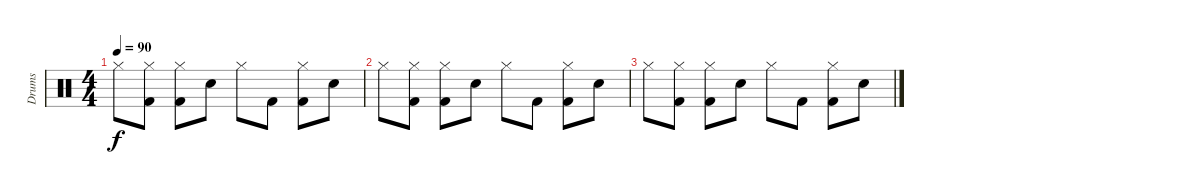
\track ("Drums" "Drums") {instrument percussion}
\staff {score}
\articulation defaults
\ts (4 4)
\tempo 90
\clef neutral
\ks c "Hi-Hat (closed)".8{dy f}
("Hi-Hat (closed)" "Kick (hit) 2").8 ("Hi-Hat (closed)" "Kick (hit) 2").8 "Snare (hit) 2".8 "Hi-Hat (closed)".8 "Kick (hit) 2".8 ("Hi-Hat (closed)" "Kick (hit) 2").8 "Snare (hit) 2".8 |
"Hi-Hat (closed)".8 ("Hi-Hat (closed)" "Kick (hit) 2").8 ("Hi-Hat (closed)" "Kick (hit) 2").8 "Snare (hit) 2".8 "Hi-Hat (closed)".8 "Kick (hit) 2".8 ("Hi-Hat (closed)" "Kick (hit) 2").8 "Snare (hit) 2".8 |
"Hi-Hat (closed)".8 ("Hi-Hat (closed)" "Kick (hit) 2").8 ("Hi-Hat (closed)" "Kick (hit) 2").8 "Snare (hit) 2".8 "Hi-Hat (closed)".8 "Kick (hit) 2".8 ("Hi-Hat (closed)" "Kick (hit) 2").8 "Snare (hit) 2".8
